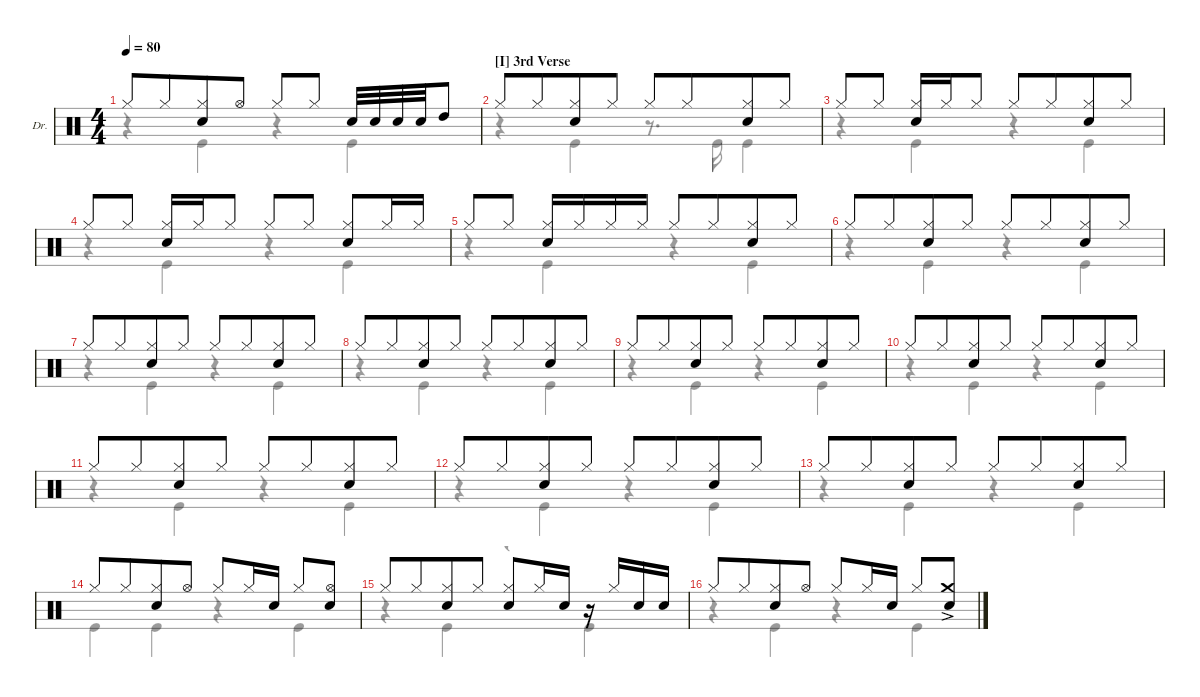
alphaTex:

\defaultSystemsLayout 4
\hideDynamics
\bracketExtendMode groupsimilarinstruments
\firstSystemTrackNameOrientation horizontal
\otherSystemsTrackNameOrientation horizontal
\track ("Drums" "Dr.") {multiBarRest instrument percussion}
\staff {score}
\articulation defaults
\voice
\ts (4 4)
\tempo 80
\clef neutral
\ks c "Hi-Hat (closed)".8{dy mf} "Hi-Hat (closed)".8{beam merge}
("Hi-Hat (closed)" "Snare (hit) 2").8 "Hi-Hat (open)".8 "Hi-Hat (closed)".8 "Hi-Hat (closed)".8 "Snare (hit) 2".32 "Snare (hit) 2".32 "Snare (hit) 2".32 "Snare (hit) 2".32 "High Tom (hit)".8 |
\section ("I" "3rd Verse")
"Hi-Hat (closed)".8 "Hi-Hat (closed)".8{beam merge} ("Hi-Hat (closed)" "Snare (hit) 2").8 "Hi-Hat (closed)".8 "Hi-Hat (closed)".8 "Hi-Hat (closed)".8{beam merge} ("Hi-Hat (closed)" "Snare (hit) 2").8{beam merge} "Hi-Hat (closed)".8{beam merge} |
"Hi-Hat (closed)".8 "Hi-Hat (closed)".8 ("Hi-Hat (closed)" "Snare (hit) 2").16 "Hi-Hat (closed)".16 "Hi-Hat (closed)".8 "Hi-Hat (closed)".8 "Hi-Hat (closed)".8{beam merge} ("Hi-Hat (closed)" "Snare (hit) 2").8 "Hi-Hat (closed)".8 |
"Hi-Hat (closed)".8 "Hi-Hat (closed)".8 ("Hi-Hat (closed)" "Snare (hit) 2").16 "Hi-Hat (closed)".16 "Hi-Hat (closed)".8 "Hi-Hat (closed)".8 "Hi-Hat (closed)".8 ("Hi-Hat (closed)" "Snare (hit) 2").8 "Hi-Hat (closed)".16 "Hi-Hat (closed)".16 |
"Hi-Hat (closed)".8 "Hi-Hat (closed)".8 ("Hi-Hat (closed)" "Snare (hit) 2").16 "Hi-Hat (closed)".16 "Hi-Hat (closed)".16 "Hi-Hat (closed)".16 "Hi-Hat (closed)".8 "Hi-Hat (closed)".8{beam merge} ("Hi-Hat (closed)" "Snare (hit) 2").8 "Hi-Hat (closed)".8 |
"Hi-Hat (closed)".8 "Hi-Hat (closed)".8{beam merge} ("Hi-Hat (closed)" "Snare (hit) 2").8 "Hi-Hat (closed)".8 "Hi-Hat (closed)".8 "Hi-Hat (closed)".8{beam merge} ("Hi-Hat (closed)" "Snare (hit) 2").8{beam merge} "Hi-Hat (closed)".8{beam merge} |
"Hi-Hat (closed)".8 "Hi-Hat (closed)".8{beam merge} ("Hi-Hat (closed)" "Snare (hit) 2").8 "Hi-Hat (closed)".8 "Hi-Hat (closed)".8 "Hi-Hat (closed)".8{beam merge} ("Hi-Hat (closed)" "Snare (hit) 2").8{beam merge} "Hi-Hat (closed)".8{beam merge} |
"Hi-Hat (closed)".8 "Hi-Hat (closed)".8{beam merge} ("Hi-Hat (closed)" "Snare (hit) 2").8 "Hi-Hat (closed)".8 "Hi-Hat (closed)".8 "Hi-Hat (closed)".8{beam merge} ("Hi-Hat (closed)" "Snare (hit) 2").8{beam merge} "Hi-Hat (closed)".8{beam merge} |
"Hi-Hat (closed)".8 "Hi-Hat (closed)".8{beam merge} ("Hi-Hat (closed)" "Snare (hit) 2").8 "Hi-Hat (closed)".8 "Hi-Hat (closed)".8 "Hi-Hat (closed)".8{beam merge} ("Hi-Hat (closed)" "Snare (hit) 2").8{beam merge} "Hi-Hat (closed)".8{beam merge} |
"Hi-Hat (closed)".8 "Hi-Hat (closed)".8{beam merge} ("Hi-Hat (closed)" "Snare (hit) 2").8 "Hi-Hat (closed)".8 "Hi-Hat (closed)".8 "Hi-Hat (closed)".8{beam merge} ("Hi-Hat (closed)" "Snare (hit) 2").8{beam merge} "Hi-Hat (closed)".8{beam merge} |
"Hi-Hat (closed)".8 "Hi-Hat (closed)".8{beam merge} ("Hi-Hat (closed)" "Snare (hit) 2").8 "Hi-Hat (closed)".8 "Hi-Hat (closed)".8 "Hi-Hat (closed)".8{beam merge} ("Hi-Hat (closed)" "Snare (hit) 2").8{beam merge} "Hi-Hat (closed)".8{beam merge} |
"Hi-Hat (closed)".8 "Hi-Hat (closed)".8{beam merge} ("Hi-Hat (closed)" "Snare (hit) 2").8 "Hi-Hat (closed)".8 "Hi-Hat (closed)".8 "Hi-Hat (closed)".8{beam merge} ("Hi-Hat (closed)" "Snare (hit) 2").8{beam merge} "Hi-Hat (closed)".8{beam merge} |
"Hi-Hat (closed)".8 "Hi-Hat (closed)".8{beam merge} ("Hi-Hat (closed)" "Snare (hit) 2").8 "Hi-Hat (closed)".8 "Hi-Hat (closed)".8 "Hi-Hat (closed)".8{beam merge} ("Hi-Hat (closed)" "Snare (hit) 2").8{beam merge} "Hi-Hat (closed)".8{beam merge} |
"Hi-Hat (closed)".8 "Hi-Hat (closed)".8{beam merge} ("Hi-Hat (closed)" "Snare (hit) 2").8 "Hi-Hat (open)".8 "Hi-Hat (closed)".8 "Hi-Hat (closed)".16 "Snare (hit) 2".16 "Hi-Hat (closed)".8 ("Hi-Hat (open)" "Snare (hit) 2").8 |
"Hi-Hat (closed)".8 "Hi-Hat (closed)".8{beam merge} ("Hi-Hat (closed)" "Snare (hit) 2").8 "Hi-Hat (closed)".8 ("Hi-Hat (closed)" "Snare (hit) 2").8 "Hi-Hat (closed)".16 "Snare (hit) 2".16 r.16 "Hi-Hat (closed)".16 "Snare (hit) 2".16 "Snare (hit) 2".16 |
"Hi-Hat (closed)".8 "Hi-Hat (closed)".8{beam merge} ("Hi-Hat (closed)" "Snare (hit) 2").8 "Hi-Hat (open)".8 "Hi-Hat (closed)".8 "Hi-Hat (closed)".16 "Snare (hit) 2".16 "Hi-Hat (closed)".8 ("Crash medium (hit)"{ac} "Snare (hit) 2").8
\voice
\clef neutral
\ottava regular
\simile none
\ks c
r.4{dy mf} "Kick (hit)".4 r.4 "Kick (hit)".4 |
r.4 "Kick (hit)".4 r.8{d} "Kick (hit)".16 "Kick (hit)".4 |
r.4 "Kick (hit)".4 r.4 "Kick (hit)".4 |
r.4 "Kick (hit)".4 r.4 "Kick (hit)".4 |
r.4 "Kick (hit)".4 r.4 "Kick (hit)".4 |
r.4 "Kick (hit)".4 r.4 "Kick (hit)".4 |
r.4 "Kick (hit)".4 r.4 "Kick (hit)".4 |
r.4 "Kick (hit)".4 r.4 "Kick (hit)".4 |
r.4 "Kick (hit)".4 r.4 "Kick (hit)".4 |
r.4 "Kick (hit)".4 r.4 "Kick (hit)".4 |
r.4 "Kick (hit)".4 r.4 "Kick (hit)".4 |
r.4 "Kick (hit)".4 r.4 "Kick (hit)".4 |
r.4 "Kick (hit)".4 r.4 "Kick (hit)".4 |
"Kick (hit)".4 "Kick (hit)".4 r.4 "Kick (hit)".4 |
r.4 "Kick (hit)".4 r.4 "Kick (hit)".4 |
r.4 "Kick (hit)".4 r.4 "Kick (hit)".4
